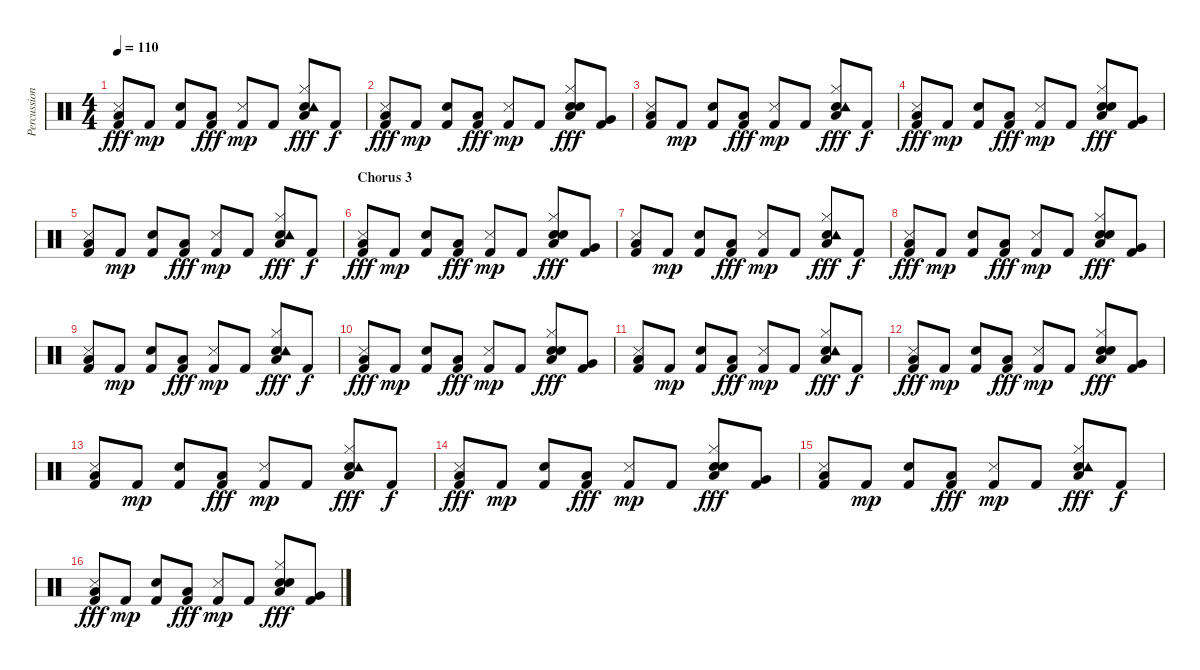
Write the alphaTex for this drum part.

\track ("Percussion" "Percussion") {instrument percussion}
\staff {score}
\articulation defaults
\ts (4 4)
\tempo 110
\clef neutral
\ks c
("Snare (side stick) 3" "Low Floor Tom (hit)" "Kick (hit) 2").8{dy fff} "Kick (hit) 2".8{dy mp} ("Electric Snare (hit)" "Kick (hit) 2").8 ("Low Floor Tom (hit)" "Kick (hit) 2").8{dy fff} ("Snare (side stick) 3" "Kick (hit) 2").8{dy mp} "Kick (hit) 2".8 ("Electric Snare (hit)" "Hi-Hat (closed)" "Low Floor Tom (hit)" "Tambourine (hit)").8{dy fff} "Kick (hit) 2".8{dy f} |
("Snare (side stick) 3" "Low Floor Tom (hit)" "Kick (hit) 2").8{dy fff} "Kick (hit) 2".8{dy mp} ("Electric Snare (hit)" "Kick (hit) 2").8 ("Low Floor Tom (hit)" "Kick (hit) 2").8{dy fff} ("Snare (side stick) 3" "Kick (hit) 2").8{dy mp} "Kick (hit) 2".8 ("Electric Snare (hit)" "Hi-Hat (closed)" "Low Floor Tom (hit)" "Snare (hit) 2").8{dy fff} ("Very Low Tom (hit)" "Kick (hit) 2").8 |
("Snare (side stick) 3" "Low Floor Tom (hit)" "Kick (hit) 2").8 "Kick (hit) 2".8{dy mp} ("Electric Snare (hit)" "Kick (hit) 2").8 ("Low Floor Tom (hit)" "Kick (hit) 2").8{dy fff} ("Snare (side stick) 3" "Kick (hit) 2").8{dy mp} "Kick (hit) 2".8 ("Electric Snare (hit)" "Hi-Hat (closed)" "Low Floor Tom (hit)" "Tambourine (hit)").8{dy fff} "Kick (hit) 2".8{dy f} |
("Snare (side stick) 3" "Low Floor Tom (hit)" "Kick (hit) 2").8{dy fff} "Kick (hit) 2".8{dy mp} ("Electric Snare (hit)" "Kick (hit) 2").8 ("Low Floor Tom (hit)" "Kick (hit) 2").8{dy fff} ("Snare (side stick) 3" "Kick (hit) 2").8{dy mp} "Kick (hit) 2".8 ("Electric Snare (hit)" "Hi-Hat (closed)" "Low Floor Tom (hit)" "Snare (hit) 2").8{dy fff} ("Very Low Tom (hit)" "Kick (hit) 2").8 |
("Snare (side stick) 3" "Low Floor Tom (hit)" "Kick (hit) 2").8 "Kick (hit) 2".8{dy mp} ("Electric Snare (hit)" "Kick (hit) 2").8 ("Low Floor Tom (hit)" "Kick (hit) 2").8{dy fff} ("Snare (side stick) 3" "Kick (hit) 2").8{dy mp} "Kick (hit) 2".8 ("Electric Snare (hit)" "Hi-Hat (closed)" "Low Floor Tom (hit)" "Tambourine (hit)").8{dy fff} "Kick (hit) 2".8{dy f} |
\section ("" "Chorus 3")
("Snare (side stick) 3" "Low Floor Tom (hit)" "Kick (hit) 2").8{dy fff} "Kick (hit) 2".8{dy mp} ("Electric Snare (hit)" "Kick (hit) 2").8 ("Low Floor Tom (hit)" "Kick (hit) 2").8{dy fff} ("Snare (side stick) 3" "Kick (hit) 2").8{dy mp} "Kick (hit) 2".8 ("Electric Snare (hit)" "Hi-Hat (closed)" "Low Floor Tom (hit)" "Snare (hit) 2").8{dy fff} ("Very Low Tom (hit)" "Kick (hit) 2").8 |
("Snare (side stick) 3" "Low Floor Tom (hit)" "Kick (hit) 2").8 "Kick (hit) 2".8{dy mp} ("Electric Snare (hit)" "Kick (hit) 2").8 ("Low Floor Tom (hit)" "Kick (hit) 2").8{dy fff} ("Snare (side stick) 3" "Kick (hit) 2").8{dy mp} "Kick (hit) 2".8 ("Electric Snare (hit)" "Hi-Hat (closed)" "Low Floor Tom (hit)" "Tambourine (hit)").8{dy fff} "Kick (hit) 2".8{dy f} |
("Snare (side stick) 3" "Low Floor Tom (hit)" "Kick (hit) 2").8{dy fff} "Kick (hit) 2".8{dy mp} ("Electric Snare (hit)" "Kick (hit) 2").8 ("Low Floor Tom (hit)" "Kick (hit) 2").8{dy fff} ("Snare (side stick) 3" "Kick (hit) 2").8{dy mp} "Kick (hit) 2".8 ("Electric Snare (hit)" "Hi-Hat (closed)" "Low Floor Tom (hit)" "Snare (hit) 2").8{dy fff} ("Very Low Tom (hit)" "Kick (hit) 2").8 |
("Snare (side stick) 3" "Low Floor Tom (hit)" "Kick (hit) 2").8 "Kick (hit) 2".8{dy mp} ("Electric Snare (hit)" "Kick (hit) 2").8 ("Low Floor Tom (hit)" "Kick (hit) 2").8{dy fff} ("Snare (side stick) 3" "Kick (hit) 2").8{dy mp} "Kick (hit) 2".8 ("Electric Snare (hit)" "Hi-Hat (closed)" "Low Floor Tom (hit)" "Tambourine (hit)").8{dy fff} "Kick (hit) 2".8{dy f} |
("Snare (side stick) 3" "Low Floor Tom (hit)" "Kick (hit) 2").8{dy fff} "Kick (hit) 2".8{dy mp} ("Electric Snare (hit)" "Kick (hit) 2").8 ("Low Floor Tom (hit)" "Kick (hit) 2").8{dy fff} ("Snare (side stick) 3" "Kick (hit) 2").8{dy mp} "Kick (hit) 2".8 ("Electric Snare (hit)" "Hi-Hat (closed)" "Low Floor Tom (hit)" "Snare (hit) 2").8{dy fff} ("Very Low Tom (hit)" "Kick (hit) 2").8 |
("Snare (side stick) 3" "Low Floor Tom (hit)" "Kick (hit) 2").8 "Kick (hit) 2".8{dy mp} ("Electric Snare (hit)" "Kick (hit) 2").8 ("Low Floor Tom (hit)" "Kick (hit) 2").8{dy fff} ("Snare (side stick) 3" "Kick (hit) 2").8{dy mp} "Kick (hit) 2".8 ("Electric Snare (hit)" "Hi-Hat (closed)" "Low Floor Tom (hit)" "Tambourine (hit)").8{dy fff} "Kick (hit) 2".8{dy f} |
("Snare (side stick) 3" "Low Floor Tom (hit)" "Kick (hit) 2").8{dy fff} "Kick (hit) 2".8{dy mp} ("Electric Snare (hit)" "Kick (hit) 2").8 ("Low Floor Tom (hit)" "Kick (hit) 2").8{dy fff} ("Snare (side stick) 3" "Kick (hit) 2").8{dy mp} "Kick (hit) 2".8 ("Electric Snare (hit)" "Hi-Hat (closed)" "Low Floor Tom (hit)" "Snare (hit) 2").8{dy fff} ("Very Low Tom (hit)" "Kick (hit) 2").8 |
("Snare (side stick) 3" "Low Floor Tom (hit)" "Kick (hit) 2").8 "Kick (hit) 2".8{dy mp} ("Electric Snare (hit)" "Kick (hit) 2").8 ("Low Floor Tom (hit)" "Kick (hit) 2").8{dy fff} ("Snare (side stick) 3" "Kick (hit) 2").8{dy mp} "Kick (hit) 2".8 ("Electric Snare (hit)" "Hi-Hat (closed)" "Low Floor Tom (hit)" "Tambourine (hit)").8{dy fff} "Kick (hit) 2".8{dy f} |
("Snare (side stick) 3" "Low Floor Tom (hit)" "Kick (hit) 2").8{dy fff} "Kick (hit) 2".8{dy mp} ("Electric Snare (hit)" "Kick (hit) 2").8 ("Low Floor Tom (hit)" "Kick (hit) 2").8{dy fff} ("Snare (side stick) 3" "Kick (hit) 2").8{dy mp} "Kick (hit) 2".8 ("Electric Snare (hit)" "Hi-Hat (closed)" "Low Floor Tom (hit)" "Snare (hit) 2").8{dy fff} ("Very Low Tom (hit)" "Kick (hit) 2").8 |
("Snare (side stick) 3" "Low Floor Tom (hit)" "Kick (hit) 2").8 "Kick (hit) 2".8{dy mp} ("Electric Snare (hit)" "Kick (hit) 2").8 ("Low Floor Tom (hit)" "Kick (hit) 2").8{dy fff} ("Snare (side stick) 3" "Kick (hit) 2").8{dy mp} "Kick (hit) 2".8 ("Electric Snare (hit)" "Hi-Hat (closed)" "Low Floor Tom (hit)" "Tambourine (hit)").8{dy fff} "Kick (hit) 2".8{dy f} |
("Snare (side stick) 3" "Low Floor Tom (hit)" "Kick (hit) 2").8{dy fff} "Kick (hit) 2".8{dy mp} ("Electric Snare (hit)" "Kick (hit) 2").8 ("Low Floor Tom (hit)" "Kick (hit) 2").8{dy fff} ("Snare (side stick) 3" "Kick (hit) 2").8{dy mp} "Kick (hit) 2".8 ("Electric Snare (hit)" "Hi-Hat (closed)" "Low Floor Tom (hit)" "Snare (hit) 2").8{dy fff} ("Very Low Tom (hit)" "Kick (hit) 2").8
